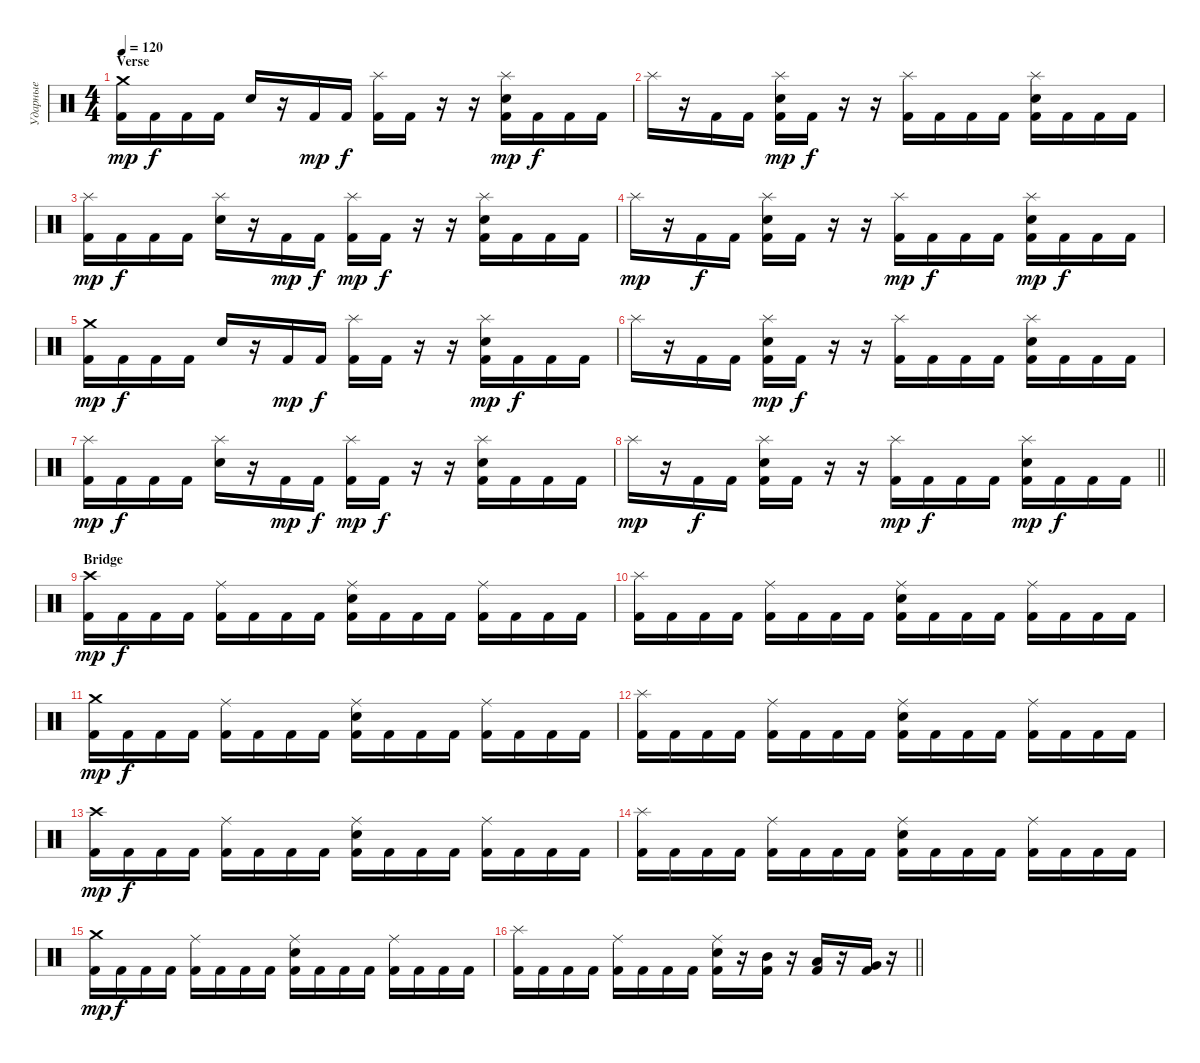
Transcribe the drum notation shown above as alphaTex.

\track ("Ударные" "Ударные") {instrument percussion}
\staff {score}
\articulation defaults
\ts (4 4)
\section ("" "Verse")
\tempo 120
\clef neutral
\ks c
("Kick (hit) 2" "Crash medium (hit)").16{dy mp} "Kick (hit) 2".16{dy f} "Kick (hit) 2".16 "Kick (hit) 2".16 "Snare (hit) 2".16 r.16 "Kick (hit) 2".16{dy mp} "Kick (hit) 2".16{dy f} ("Kick (hit) 2" "Splash (hit)").16 "Kick (hit) 2".16 r.16 r.16 ("Kick (hit) 2" "Splash (hit)" "Snare (hit) 2").16{dy mp} "Kick (hit) 2".16{dy f} "Kick (hit) 2".16 "Kick (hit) 2".16 |
"Splash (hit)".16 r.16 "Kick (hit) 2".16 "Kick (hit) 2".16 ("Kick (hit) 2" "Splash (hit)" "Snare (hit) 2").16{dy mp} "Kick (hit) 2".16{dy f} r.16 r.16 ("Kick (hit) 2" "Splash (hit)").16 "Kick (hit) 2".16 "Kick (hit) 2".16 "Kick (hit) 2".16 ("Kick (hit) 2" "Splash (hit)" "Snare (hit) 2").16 "Kick (hit) 2".16 "Kick (hit) 2".16 "Kick (hit) 2".16 |
("Kick (hit) 2" "Splash (hit)").16{dy mp} "Kick (hit) 2".16{dy f} "Kick (hit) 2".16 "Kick (hit) 2".16 ("Splash (hit)" "Snare (hit) 2").16 r.16 "Kick (hit) 2".16{dy mp} "Kick (hit) 2".16{dy f} ("Kick (hit) 2" "Splash (hit)").16{dy mp} "Kick (hit) 2".16{dy f} r.16 r.16 ("Kick (hit) 2" "Splash (hit)" "Snare (hit) 2").16 "Kick (hit) 2".16 "Kick (hit) 2".16 "Kick (hit) 2".16 |
"Splash (hit)".16{dy mp} r.16 "Kick (hit) 2".16{dy f} "Kick (hit) 2".16 ("Kick (hit) 2" "Splash (hit)" "Snare (hit) 2").16 "Kick (hit) 2".16 r.16 r.16 ("Kick (hit) 2" "Splash (hit)").16{dy mp} "Kick (hit) 2".16{dy f} "Kick (hit) 2".16 "Kick (hit) 2".16 ("Kick (hit) 2" "Splash (hit)" "Snare (hit) 2").16{dy mp} "Kick (hit) 2".16{dy f} "Kick (hit) 2".16 "Kick (hit) 2".16 |
("Kick (hit) 2" "Crash medium (hit)").16{dy mp} "Kick (hit) 2".16{dy f} "Kick (hit) 2".16 "Kick (hit) 2".16 "Snare (hit) 2".16 r.16 "Kick (hit) 2".16{dy mp} "Kick (hit) 2".16{dy f} ("Kick (hit) 2" "Splash (hit)").16 "Kick (hit) 2".16 r.16 r.16 ("Kick (hit) 2" "Splash (hit)" "Snare (hit) 2").16{dy mp} "Kick (hit) 2".16{dy f} "Kick (hit) 2".16 "Kick (hit) 2".16 |
"Splash (hit)".16 r.16 "Kick (hit) 2".16 "Kick (hit) 2".16 ("Kick (hit) 2" "Splash (hit)" "Snare (hit) 2").16{dy mp} "Kick (hit) 2".16{dy f} r.16 r.16 ("Kick (hit) 2" "Splash (hit)").16 "Kick (hit) 2".16 "Kick (hit) 2".16 "Kick (hit) 2".16 ("Kick (hit) 2" "Splash (hit)" "Snare (hit) 2").16 "Kick (hit) 2".16 "Kick (hit) 2".16 "Kick (hit) 2".16 |
("Kick (hit) 2" "Splash (hit)").16{dy mp} "Kick (hit) 2".16{dy f} "Kick (hit) 2".16 "Kick (hit) 2".16 ("Splash (hit)" "Snare (hit) 2").16 r.16 "Kick (hit) 2".16{dy mp} "Kick (hit) 2".16{dy f} ("Kick (hit) 2" "Splash (hit)").16{dy mp} "Kick (hit) 2".16{dy f} r.16 r.16 ("Kick (hit) 2" "Splash (hit)" "Snare (hit) 2").16 "Kick (hit) 2".16 "Kick (hit) 2".16 "Kick (hit) 2".16 |
\barLineRight lightlight "Splash (hit)".16{dy mp}
r.16 "Kick (hit) 2".16{dy f} "Kick (hit) 2".16 ("Kick (hit) 2" "Splash (hit)" "Snare (hit) 2").16 "Kick (hit) 2".16 r.16 r.16 ("Kick (hit) 2" "Splash (hit)").16{dy mp} "Kick (hit) 2".16{dy f} "Kick (hit) 2".16 "Kick (hit) 2".16 ("Kick (hit) 2" "Splash (hit)" "Snare (hit) 2").16{dy mp} "Kick (hit) 2".16{dy f} "Kick (hit) 2".16 "Kick (hit) 2".16 |
\section ("" "Bridge")
("Kick (hit) 2" "Crash high (hit)").16{dy mp} "Kick (hit) 2".16{dy f} "Kick (hit) 2".16 "Kick (hit) 2".16 ("Kick (hit) 2" "Ride (middle)").16 "Kick (hit) 2".16 "Kick (hit) 2".16 "Kick (hit) 2".16 ("Kick (hit) 2" "Ride (middle)" "Snare (hit) 2").16 "Kick (hit) 2".16 "Kick (hit) 2".16 "Kick (hit) 2".16 ("Kick (hit) 2" "Ride (middle)").16 "Kick (hit) 2".16 "Kick (hit) 2".16 "Kick (hit) 2".16 |
("Kick (hit) 2" "Splash (hit)").16 "Kick (hit) 2".16 "Kick (hit) 2".16 "Kick (hit) 2".16 ("Kick (hit) 2" "Ride (middle)").16 "Kick (hit) 2".16 "Kick (hit) 2".16 "Kick (hit) 2".16 ("Kick (hit) 2" "Ride (middle)" "Snare (hit) 2").16 "Kick (hit) 2".16 "Kick (hit) 2".16 "Kick (hit) 2".16 ("Kick (hit) 2" "Ride (middle)").16 "Kick (hit) 2".16 "Kick (hit) 2".16 "Kick (hit) 2".16 |
("Kick (hit) 2" "Crash medium (hit)").16{dy mp} "Kick (hit) 2".16{dy f} "Kick (hit) 2".16 "Kick (hit) 2".16 ("Kick (hit) 2" "Ride (middle)").16 "Kick (hit) 2".16 "Kick (hit) 2".16 "Kick (hit) 2".16 ("Kick (hit) 2" "Ride (middle)" "Snare (hit) 2").16 "Kick (hit) 2".16 "Kick (hit) 2".16 "Kick (hit) 2".16 ("Kick (hit) 2" "Ride (middle)").16 "Kick (hit) 2".16 "Kick (hit) 2".16 "Kick (hit) 2".16 |
("Kick (hit) 2" "Splash (hit)").16 "Kick (hit) 2".16 "Kick (hit) 2".16 "Kick (hit) 2".16 ("Kick (hit) 2" "Ride (middle)").16 "Kick (hit) 2".16 "Kick (hit) 2".16 "Kick (hit) 2".16 ("Kick (hit) 2" "Ride (middle)" "Snare (hit) 2").16 "Kick (hit) 2".16 "Kick (hit) 2".16 "Kick (hit) 2".16 ("Kick (hit) 2" "Ride (middle)").16 "Kick (hit) 2".16 "Kick (hit) 2".16 "Kick (hit) 2".16 |
("Kick (hit) 2" "Crash high (hit)").16{dy mp} "Kick (hit) 2".16{dy f} "Kick (hit) 2".16 "Kick (hit) 2".16 ("Kick (hit) 2" "Ride (middle)").16 "Kick (hit) 2".16 "Kick (hit) 2".16 "Kick (hit) 2".16 ("Kick (hit) 2" "Ride (middle)" "Snare (hit) 2").16 "Kick (hit) 2".16 "Kick (hit) 2".16 "Kick (hit) 2".16 ("Kick (hit) 2" "Ride (middle)").16 "Kick (hit) 2".16 "Kick (hit) 2".16 "Kick (hit) 2".16 |
("Kick (hit) 2" "Splash (hit)").16 "Kick (hit) 2".16 "Kick (hit) 2".16 "Kick (hit) 2".16 ("Kick (hit) 2" "Ride (middle)").16 "Kick (hit) 2".16 "Kick (hit) 2".16 "Kick (hit) 2".16 ("Kick (hit) 2" "Ride (middle)" "Snare (hit) 2").16 "Kick (hit) 2".16 "Kick (hit) 2".16 "Kick (hit) 2".16 ("Kick (hit) 2" "Ride (middle)").16 "Kick (hit) 2".16 "Kick (hit) 2".16 "Kick (hit) 2".16 |
("Kick (hit) 2" "Crash medium (hit)").16{dy mp} "Kick (hit) 2".16{dy f} "Kick (hit) 2".16 "Kick (hit) 2".16 ("Kick (hit) 2" "Ride (middle)").16 "Kick (hit) 2".16 "Kick (hit) 2".16 "Kick (hit) 2".16 ("Kick (hit) 2" "Ride (middle)" "Snare (hit) 2").16 "Kick (hit) 2".16 "Kick (hit) 2".16 "Kick (hit) 2".16 ("Kick (hit) 2" "Ride (middle)").16 "Kick (hit) 2".16 "Kick (hit) 2".16 "Kick (hit) 2".16 |
\barLineRight lightlight
("Kick (hit) 2" "Splash (hit)").16 "Kick (hit) 2".16 "Kick (hit) 2".16 "Kick (hit) 2".16 ("Kick (hit) 2" "Ride (middle)").16 "Kick (hit) 2".16 "Kick (hit) 2".16 "Kick (hit) 2".16 ("Kick (hit) 2" "Ride (middle)" "Snare (hit) 2").16 r.16 ("Kick (hit) 2" "Mid Tom (hit)").16 r.16 ("Kick (hit) 2" "Low Tom (hit)").16 r.16 ("Kick (hit) 2" "Very Low Tom (hit)").16 r.16
